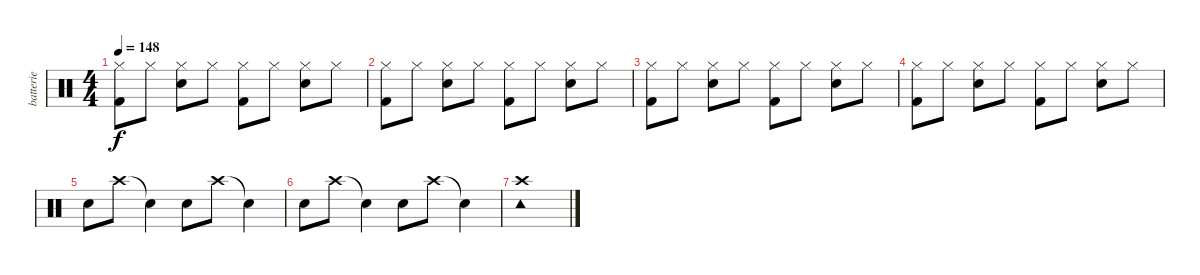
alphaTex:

\track ("batterie" "batterie") {instrument percussion}
\staff {score}
\articulation defaults
\ts (4 4)
\tempo 148
\clef neutral
\ks c
("Hi-Hat (closed)" "Kick (hit) 2").8{dy f} "Hi-Hat (closed)".8 ("Hi-Hat (closed)" "Snare (hit) 2").8 "Hi-Hat (closed)".8 ("Hi-Hat (closed)" "Kick (hit) 2").8 "Hi-Hat (closed)".8 ("Hi-Hat (closed)" "Snare (hit) 2").8 "Hi-Hat (closed)".8 |
("Hi-Hat (closed)" "Kick (hit) 2").8 "Hi-Hat (closed)".8 ("Hi-Hat (closed)" "Snare (hit) 2").8 "Hi-Hat (closed)".8 ("Hi-Hat (closed)" "Kick (hit) 2").8 "Hi-Hat (closed)".8 ("Hi-Hat (closed)" "Snare (hit) 2").8 "Hi-Hat (closed)".8 |
("Hi-Hat (closed)" "Kick (hit) 2").8 "Hi-Hat (closed)".8 ("Hi-Hat (closed)" "Snare (hit) 2").8 "Hi-Hat (closed)".8 ("Hi-Hat (closed)" "Kick (hit) 2").8 "Hi-Hat (closed)".8 ("Hi-Hat (closed)" "Snare (hit) 2").8 "Hi-Hat (closed)".8 |
("Hi-Hat (closed)" "Kick (hit) 2").8 "Hi-Hat (closed)".8 ("Hi-Hat (closed)" "Snare (hit) 2").8 "Hi-Hat (closed)".8 ("Hi-Hat (closed)" "Kick (hit) 2").8 "Hi-Hat (closed)".8 ("Hi-Hat (closed)" "Snare (hit) 2").8 "Hi-Hat (closed)".8 |
"Snare (hit) 2".8 "Crash high (hit)".8 "Snare (hit)"{t}.4 "Snare (hit) 2".8 "Crash high (hit)".8 "Snare (hit)"{t}.4 |
"Snare (hit) 2".8 "Crash high (hit)".8 "Snare (hit)"{t}.4 "Snare (hit) 2".8 "Crash high (hit)".8 "Snare (hit)"{t}.4 |
("Crash high (hit)" "Tambourine (hit)").1
